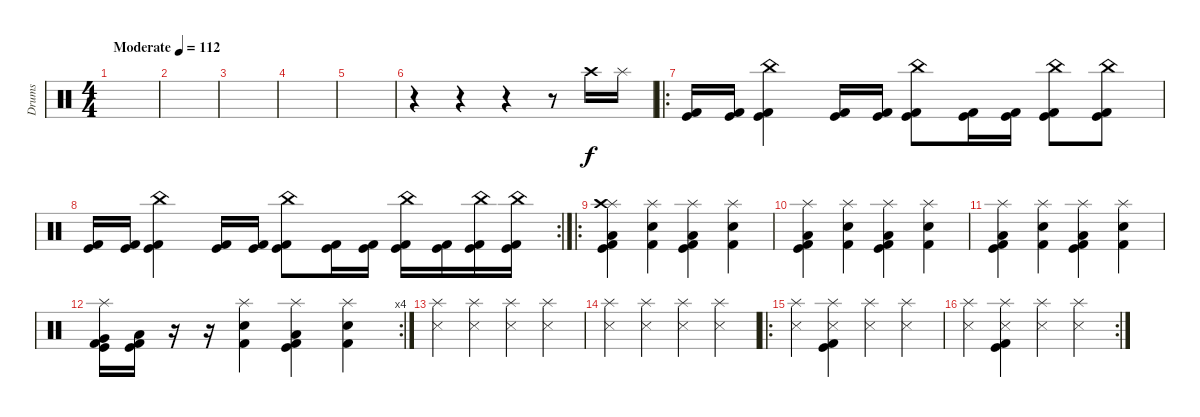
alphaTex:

\track ("Drums" "Drums") {instrument percussion}
\staff {score}
\articulation defaults
\ts (4 4)
\tempo (112 "Moderate")
\clef neutral
\ks c
|
|
|
|
|
r.4 r.4 r.4 r.8 "Crash high (hit)".16 "Splash (hit)".16 |
\ro
("Kick (hit)" "Kick (hit) 2").16 ("Kick (hit)" "Kick (hit) 2").16 ("China (hit)" "Kick (hit)" "Kick (hit) 2").4 ("Kick (hit)" "Kick (hit) 2").16 ("Kick (hit)" "Kick (hit) 2").16 ("China (hit)" "Kick (hit)" "Kick (hit) 2").8 ("Kick (hit)" "Kick (hit) 2").16 ("Kick (hit)" "Kick (hit) 2").16 ("China (hit)" "Kick (hit)" "Kick (hit) 2").8 ("China (hit)" "Kick (hit)" "Kick (hit) 2").8 |
\rc 2
("Kick (hit)" "Kick (hit) 2").16 ("Kick (hit)" "Kick (hit) 2").16 ("China (hit)" "Kick (hit)" "Kick (hit) 2").4 ("Kick (hit)" "Kick (hit) 2").16 ("Kick (hit)" "Kick (hit) 2").16 ("China (hit)" "Kick (hit)" "Kick (hit) 2").8 ("Kick (hit)" "Kick (hit) 2").16 ("Kick (hit)" "Kick (hit) 2").16 ("China (hit)" "Kick (hit)" "Kick (hit) 2").16 ("Kick (hit)" "Kick (hit) 2").16 ("China (hit)" "Kick (hit)" "Kick (hit) 2").16 ("China (hit)" "Kick (hit)" "Kick (hit) 2").16 |
\ro
("Splash (hit)" "Crash high (hit)" "Low Floor Tom (hit)" "Kick (hit)" "Kick (hit) 2").4 ("Splash (hit)" "Electric Snare (hit)" "Kick (hit) 2").4 ("Splash (hit)" "Low Floor Tom (hit)" "Kick (hit)" "Kick (hit) 2").4 ("Splash (hit)" "Electric Snare (hit)" "Kick (hit) 2").4 |
("Splash (hit)" "Low Floor Tom (hit)" "Kick (hit)" "Kick (hit) 2").4 ("Splash (hit)" "Electric Snare (hit)" "Kick (hit) 2").4 ("Splash (hit)" "Low Floor Tom (hit)" "Kick (hit)" "Kick (hit) 2").4 ("Splash (hit)" "Electric Snare (hit)" "Kick (hit) 2").4 |
("Splash (hit)" "Low Floor Tom (hit)" "Kick (hit)" "Kick (hit) 2").4 ("Splash (hit)" "Electric Snare (hit)" "Kick (hit) 2").4 ("Splash (hit)" "Low Floor Tom (hit)" "Kick (hit)" "Kick (hit) 2").4 ("Splash (hit)" "Electric Snare (hit)" "Kick (hit) 2").4 |
\rc 4
("Splash (hit)" "Very Low Tom (hit)" "Kick (hit)" "Kick (hit) 2").16 ("Low Floor Tom (hit)" "Kick (hit)" "Kick (hit) 2").16 r.16 r.16 ("Splash (hit)" "Electric Snare (hit)" "Kick (hit) 2").4 ("Splash (hit)" "Low Floor Tom (hit)" "Kick (hit)" "Kick (hit) 2").4 ("Splash (hit)" "Electric Snare (hit)" "Kick (hit) 2").4 |
("Splash (hit)" "Snare (side stick) 3").4 ("Splash (hit)" "Snare (side stick) 3").4 ("Splash (hit)" "Snare (side stick) 3").4 ("Splash (hit)" "Snare (side stick) 3").4 |
("Splash (hit)" "Snare (side stick) 3").4 ("Splash (hit)" "Snare (side stick) 3").4 ("Splash (hit)" "Snare (side stick) 3").4 ("Splash (hit)" "Snare (side stick) 3").4 |
\ro
("Splash (hit)" "Snare (side stick) 3").4 ("Splash (hit)" "Snare (side stick) 3" "Kick (hit)" "Kick (hit) 2").4 ("Splash (hit)" "Snare (side stick) 3").4 ("Splash (hit)" "Snare (side stick) 3").4 |
\rc 2
("Splash (hit)" "Snare (side stick) 3").4 ("Splash (hit)" "Snare (side stick) 3" "Kick (hit)" "Kick (hit) 2").4 ("Splash (hit)" "Snare (side stick) 3").4 ("Splash (hit)" "Snare (side stick) 3").4
